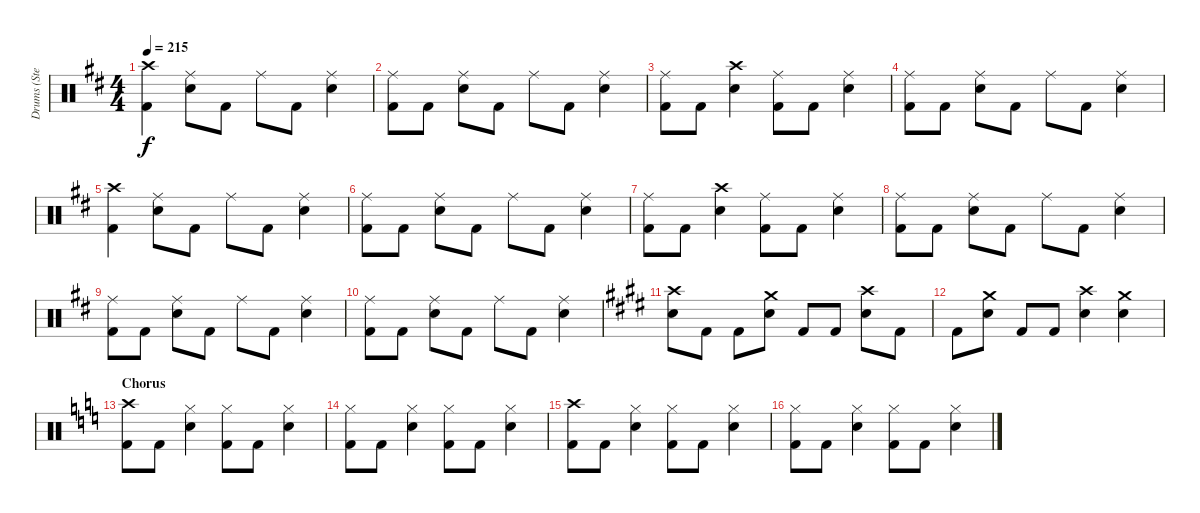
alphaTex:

\track ("Drums (Steven)" "Drums (Ste") {instrument percussion}
\staff {score}
\articulation defaults
\ts (4 4)
\tempo 215
\clef neutral
\ks d
("Crash high (hit)" "Kick (hit) 2").4{dy f} ("Ride (middle)" "Snare (hit) 2").8 "Kick (hit) 2".8 "Ride (middle)".8 "Kick (hit) 2".8 ("Ride (middle)" "Snare (hit) 2").4 |
("Ride (middle)" "Kick (hit) 2").8 "Kick (hit) 2".8 ("Ride (middle)" "Snare (hit) 2").8 "Kick (hit) 2".8 "Ride (middle)".8 "Kick (hit) 2".8 ("Ride (middle)" "Snare (hit) 2").4 |
("Ride (middle)" "Kick (hit) 2").8 "Kick (hit) 2".8 ("Crash high (hit)" "Snare (hit) 2").4 ("Ride (middle)" "Kick (hit) 2").8 "Kick (hit) 2".8 ("Ride (middle)" "Snare (hit) 2").4 |
("Ride (middle)" "Kick (hit) 2").8 "Kick (hit) 2".8 ("Ride (middle)" "Snare (hit) 2").8 "Kick (hit) 2".8 "Ride (middle)".8 "Kick (hit) 2".8 ("Ride (middle)" "Snare (hit) 2").4 |
("Crash high (hit)" "Kick (hit) 2").4 ("Ride (middle)" "Snare (hit) 2").8 "Kick (hit) 2".8 "Ride (middle)".8 "Kick (hit) 2".8 ("Ride (middle)" "Snare (hit) 2").4 |
("Ride (middle)" "Kick (hit) 2").8 "Kick (hit) 2".8 ("Ride (middle)" "Snare (hit) 2").8 "Kick (hit) 2".8 "Ride (middle)".8 "Kick (hit) 2".8 ("Ride (middle)" "Snare (hit) 2").4 |
("Ride (middle)" "Kick (hit) 2").8 "Kick (hit) 2".8 ("Crash high (hit)" "Snare (hit) 2").4 ("Ride (middle)" "Kick (hit) 2").8 "Kick (hit) 2".8 ("Ride (middle)" "Snare (hit) 2").4 |
("Ride (middle)" "Kick (hit) 2").8 "Kick (hit) 2".8 ("Ride (middle)" "Snare (hit) 2").8 "Kick (hit) 2".8 "Ride (middle)".8 "Kick (hit) 2".8 ("Ride (middle)" "Snare (hit) 2").4 |
("Ride (middle)" "Kick (hit) 2").8 "Kick (hit) 2".8 ("Ride (middle)" "Snare (hit) 2").8 "Kick (hit) 2".8 "Ride (middle)".8 "Kick (hit) 2".8 ("Ride (middle)" "Snare (hit) 2").4 |
("Ride (middle)" "Kick (hit) 2").8 "Kick (hit) 2".8 ("Ride (middle)" "Snare (hit) 2").8 "Kick (hit) 2".8 "Ride (middle)".8 "Kick (hit) 2".8 ("Ride (middle)" "Snare (hit) 2").4 |
\ks e
("Crash high (hit)" "Snare (hit) 2").8 "Kick (hit) 2".8 "Kick (hit) 2".8 ("Crash medium (hit)" "Snare (hit) 2").8 "Kick (hit) 2".8 "Kick (hit) 2".8 ("Crash high (hit)" "Snare (hit) 2").8 "Kick (hit) 2".8 |
"Kick (hit) 2".8 ("Crash medium (hit)" "Snare (hit) 2").8 "Kick (hit) 2".8 "Kick (hit) 2".8 ("Crash high (hit)" "Snare (hit) 2").4 ("Crash medium (hit)" "Snare (hit) 2").4 |
\section ("" "Chorus")
\ks c
("Crash high (hit)" "Kick (hit) 2").8 "Kick (hit) 2".8 ("Hi-Hat (closed)" "Snare (hit) 2").4 ("Hi-Hat (closed)" "Kick (hit) 2").8 "Kick (hit) 2".8 ("Hi-Hat (closed)" "Snare (hit) 2").4 |
("Hi-Hat (closed)" "Kick (hit) 2").8 "Kick (hit) 2".8 ("Hi-Hat (closed)" "Snare (hit) 2").4 ("Hi-Hat (closed)" "Kick (hit) 2").8 "Kick (hit) 2".8 ("Hi-Hat (closed)" "Snare (hit) 2").4 |
("Crash high (hit)" "Kick (hit) 2").8 "Kick (hit) 2".8 ("Hi-Hat (closed)" "Snare (hit) 2").4 ("Hi-Hat (closed)" "Kick (hit) 2").8 "Kick (hit) 2".8 ("Hi-Hat (closed)" "Snare (hit) 2").4 |
("Hi-Hat (closed)" "Kick (hit) 2").8 "Kick (hit) 2".8 ("Hi-Hat (closed)" "Snare (hit) 2").4 ("Hi-Hat (closed)" "Kick (hit) 2").8 "Kick (hit) 2".8 ("Hi-Hat (closed)" "Snare (hit) 2").4
